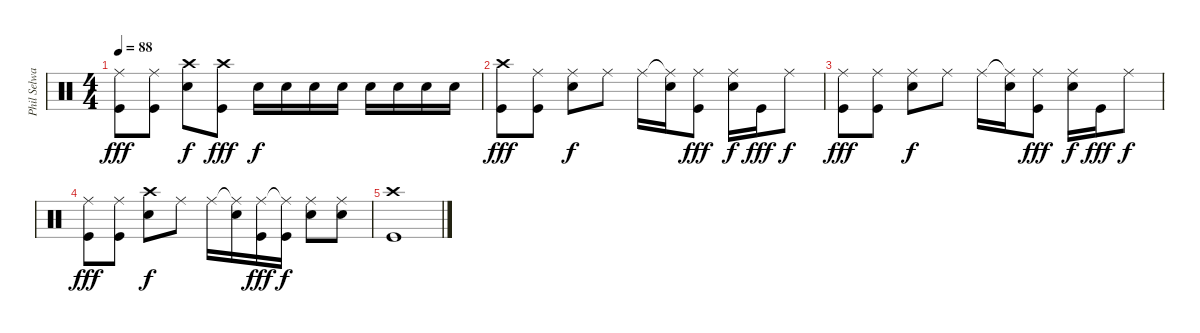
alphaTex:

\track ("Phil Selway" "Phil Selwa") {instrument percussion}
\staff {score}
\articulation defaults
\ts (4 4)
\tempo 88
\clef neutral
\ks c
("Ride (middle)" "Kick (hit)").8{dy fff} ("Ride (middle)" "Kick (hit)").8 ("Crash high (hit)" "Snare (hit) 2").8{dy f} ("Crash high (hit)" "Kick (hit)").8{dy fff} "Snare (hit) 2".16{dy f} "Snare (hit) 2".16 "Snare (hit) 2".16 "Snare (hit) 2".16 "Snare (hit) 2".16 "Snare (hit) 2".16 "Snare (hit) 2".16 "Snare (hit) 2".16 |
("Crash high (hit)" "Kick (hit)").8{dy fff volume 16} ("Ride (middle)" "Kick (hit)").8 ("Ride (middle)" "Snare (hit) 2").8{dy f} "Ride (middle)".8 "Ride (middle)".16 ("Ride (middle)"{t} "Snare (hit) 2").16 ("Ride (middle)" "Kick (hit)").8{dy fff} ("Ride (middle)" "Snare (hit) 2").16{dy f} "Kick (hit)".16{dy fff} "Ride (middle)".8{dy f} |
("Ride (middle)" "Kick (hit)").8{dy fff} ("Ride (middle)" "Kick (hit)").8 ("Ride (middle)" "Snare (hit) 2").8{dy f} "Ride (middle)".8 "Ride (middle)".16 ("Ride (middle)"{t} "Snare (hit) 2").16 ("Ride (middle)" "Kick (hit)").8{dy fff} ("Ride (middle)" "Snare (hit) 2").16{dy f} "Kick (hit)".16{dy fff} "Ride (middle)".8{dy f} |
("Ride (middle)" "Kick (hit)").8{dy fff} ("Ride (middle)" "Kick (hit)").8 ("Crash high (hit)" "Snare (hit) 2").8{dy f} "Ride (middle)".8 "Ride (middle)".16 ("Ride (middle)"{t} "Snare (hit) 2").16 ("Ride (middle)" "Kick (hit)").16{dy fff} ("Ride (middle)"{t} "Kick (hit)").16{dy f} ("Ride (middle)" "Snare (hit) 2").8 ("Ride (middle)" "Snare (hit) 2").8 |
("Crash high (hit)" "Kick (hit)").1
